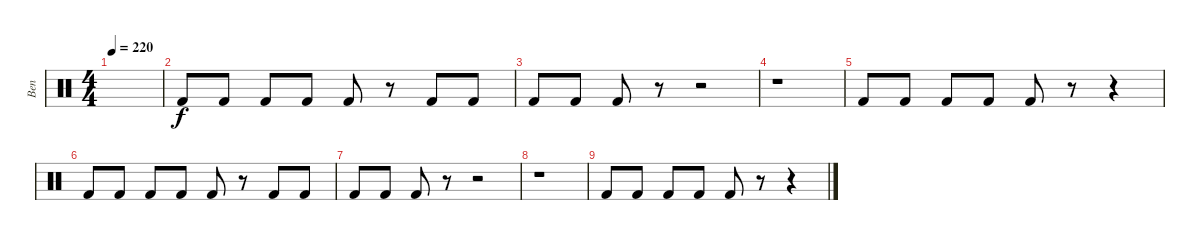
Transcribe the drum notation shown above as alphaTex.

\track ("Ben" "Ben") {instrument percussion}
\staff {score}
\articulation defaults
\ts (4 4)
\tempo 220
\clef neutral
\ks c
|
"Kick (hit) 2".8 "Kick (hit) 2".8 "Kick (hit) 2".8 "Kick (hit) 2".8 "Kick (hit) 2".8 r.8 "Kick (hit) 2".8 "Kick (hit) 2".8 |
"Kick (hit) 2".8 "Kick (hit) 2".8 "Kick (hit) 2".8 r.8 r.2 |
r.1 |
"Kick (hit) 2".8 "Kick (hit) 2".8 "Kick (hit) 2".8 "Kick (hit) 2".8 "Kick (hit) 2".8 r.8 r.4 |
"Kick (hit) 2".8 "Kick (hit) 2".8 "Kick (hit) 2".8 "Kick (hit) 2".8 "Kick (hit) 2".8 r.8 "Kick (hit) 2".8 "Kick (hit) 2".8 |
"Kick (hit) 2".8 "Kick (hit) 2".8 "Kick (hit) 2".8 r.8 r.2 |
r.1 |
"Kick (hit) 2".8 "Kick (hit) 2".8 "Kick (hit) 2".8 "Kick (hit) 2".8 "Kick (hit) 2".8 r.8 r.4
